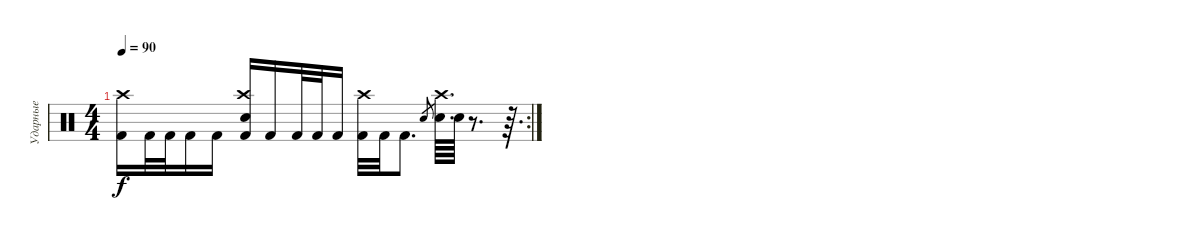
\track ("Ударные" "Ударные") {instrument percussion}
\staff {score}
\articulation defaults
\rc 2
\ts (4 4)
\tempo 90
\clef neutral
\ks c
("Kick (hit) 2" "Crash high (hit)").16{dy f} "Kick (hit) 2".32 "Kick (hit) 2".32 "Kick (hit) 2".16 "Kick (hit) 2".16 ("Kick (hit) 2" "Electric Snare (hit)" "Crash high (hit)").16 "Kick (hit) 2".16 "Kick (hit) 2".32 "Kick (hit) 2".32 "Kick (hit) 2".16 ("Kick (hit) 2" "Crash high (hit)").32 "Kick (hit) 2".32 "Kick (hit) 2".8{d} "Electric Snare (hit)".8{gr} ("Electric Snare (hit)" "Crash high (hit)").64{d} "Electric Snare (hit)".64 r.8{d} r.64{d}
